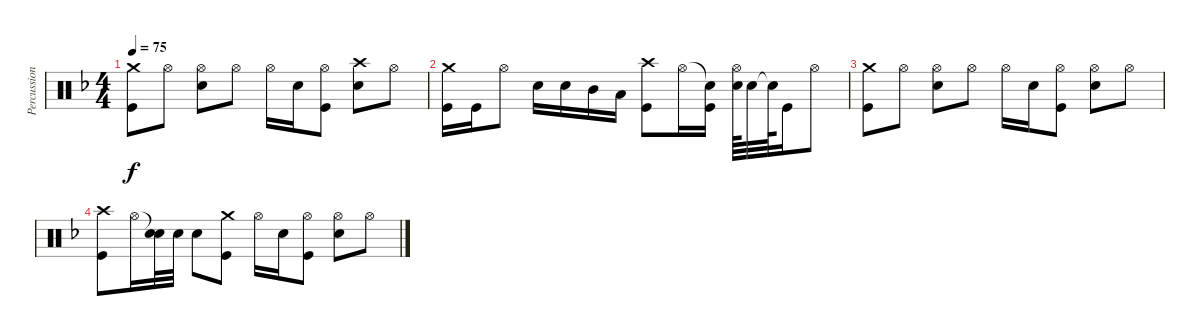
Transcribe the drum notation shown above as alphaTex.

\track ("Percussion" "Percussion") {instrument percussion}
\staff {score}
\articulation defaults
\ts (4 4)
\tempo 75
\clef neutral
\ks f
("Crash medium (hit)" "Kick (hit)").8{dy f} "Hi-Hat (open)".8 ("Hi-Hat (open)" "Electric Snare (hit)").8 "Hi-Hat (open)".8 "Hi-Hat (open)".16 "Electric Snare (hit)".16 ("Hi-Hat (open)" "Kick (hit)").8 ("Crash high (hit)" "Electric Snare (hit)").8 "Hi-Hat (open)".8 |
("Crash medium (hit)" "Kick (hit)").16 "Kick (hit)".16 "Hi-Hat (open)".8 "Electric Snare (hit)".16 "Electric Snare (hit)".16 "Mid Tom (hit)".16 "Low Tom (hit)".16 ("Crash high (hit)" "Kick (hit)").8 "Hi-Hat (open)".16 ("Snare (hit)"{t} "Kick (hit)").16 ("Hi-Hat (open)" "Electric Snare (hit)").64 "Electric Snare (hit)".32 "Snare (hit)"{t}.64 "Kick (hit)".16 "Hi-Hat (open)".8 |
("Crash medium (hit)" "Kick (hit)").8 "Hi-Hat (open)".8 ("Hi-Hat (open)" "Electric Snare (hit)").8 "Hi-Hat (open)".8 "Hi-Hat (open)".16 "Electric Snare (hit)".16 ("Hi-Hat (open)" "Kick (hit)").8 ("Hi-Hat (open)" "Electric Snare (hit)").8 "Hi-Hat (open)".8 |
("Crash high (hit)" "Kick (hit)").8 "Hi-Hat (open)".16 ("Snare (hit)"{t} "Electric Snare (hit)").32 "Electric Snare (hit)".32 "Electric Snare (hit)".8 ("Crash medium (hit)" "Kick (hit)").8 "Hi-Hat (open)".16 "Electric Snare (hit)".16 ("Hi-Hat (open)" "Kick (hit)").8 ("Hi-Hat (open)" "Electric Snare (hit)").8 "Hi-Hat (open)".8
